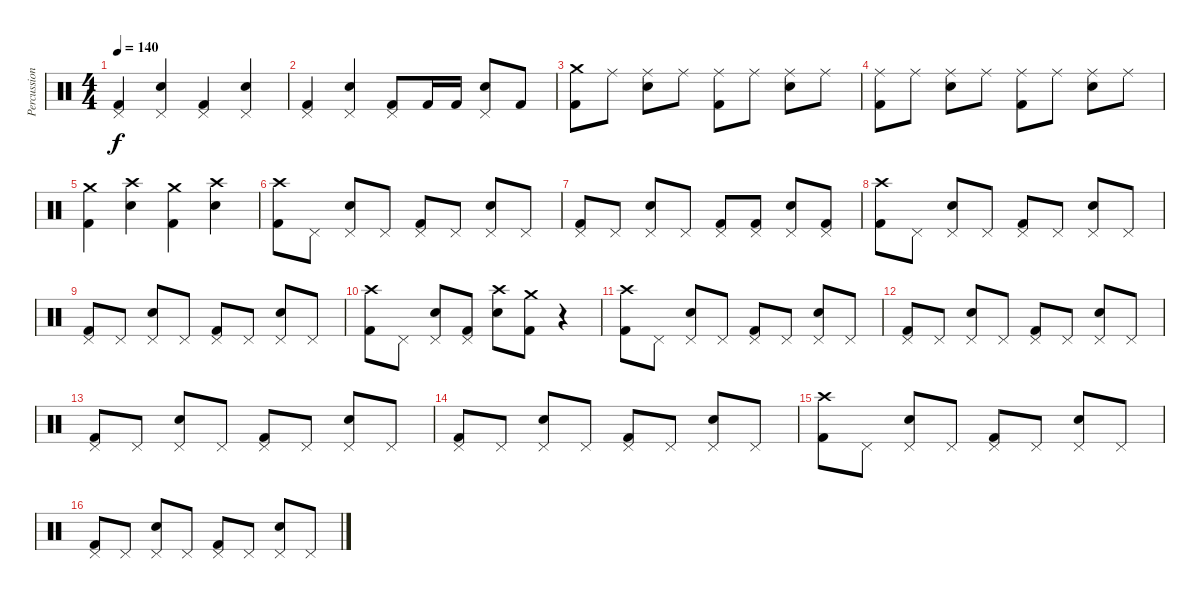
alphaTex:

\track ("Percussion" "Percussion") {instrument percussion}
\staff {score}
\articulation defaults
\ts (4 4)
\tempo 140
\clef neutral
\ks c
("Pedal Hi-Hat (hit)" "Kick (hit) 2").4{dy f} ("Pedal Hi-Hat (hit)" "Snare (hit) 2").4 ("Pedal Hi-Hat (hit)" "Kick (hit) 2").4 ("Pedal Hi-Hat (hit)" "Snare (hit) 2").4 |
("Pedal Hi-Hat (hit)" "Kick (hit) 2").4 ("Pedal Hi-Hat (hit)" "Snare (hit) 2").4 ("Pedal Hi-Hat (hit)" "Kick (hit) 2").8 "Kick (hit) 2".16 "Kick (hit) 2".16 ("Pedal Hi-Hat (hit)" "Snare (hit) 2").8 "Kick (hit) 2".8 |
("Crash medium (hit)" "Kick (hit) 2").8 "Ride (middle)".8 ("Ride (middle)" "Snare (hit) 2").8 "Ride (middle)".8 ("Ride (middle)" "Kick (hit) 2").8 "Ride (middle)".8 ("Ride (middle)" "Snare (hit) 2").8 "Ride (middle)".8 |
("Ride (middle)" "Kick (hit) 2").8 "Ride (middle)".8 ("Ride (middle)" "Snare (hit) 2").8 "Ride (middle)".8 ("Ride (middle)" "Kick (hit) 2").8 "Ride (middle)".8 ("Ride (middle)" "Snare (hit) 2").8 "Ride (middle)".8 |
("Crash medium (hit)" "Kick (hit) 2").4 ("Crash high (hit)" "Snare (hit) 2").4 ("Crash medium (hit)" "Kick (hit) 2").4 ("Crash high (hit)" "Snare (hit) 2").4 |
("Crash high (hit)" "Kick (hit) 2").8 "Pedal Hi-Hat (hit)".8 ("Pedal Hi-Hat (hit)" "Snare (hit) 2").8 "Pedal Hi-Hat (hit)".8 ("Pedal Hi-Hat (hit)" "Kick (hit) 2").8 "Pedal Hi-Hat (hit)".8 ("Pedal Hi-Hat (hit)" "Snare (hit) 2").8 "Pedal Hi-Hat (hit)".8 |
("Pedal Hi-Hat (hit)" "Kick (hit) 2").8 "Pedal Hi-Hat (hit)".8 ("Pedal Hi-Hat (hit)" "Snare (hit) 2").8 "Pedal Hi-Hat (hit)".8 ("Pedal Hi-Hat (hit)" "Kick (hit) 2").8 ("Pedal Hi-Hat (hit)" "Kick (hit) 2").8 ("Pedal Hi-Hat (hit)" "Snare (hit) 2").8 ("Pedal Hi-Hat (hit)" "Kick (hit) 2").8 |
("Crash high (hit)" "Kick (hit) 2").8 "Pedal Hi-Hat (hit)".8 ("Pedal Hi-Hat (hit)" "Snare (hit) 2").8 "Pedal Hi-Hat (hit)".8 ("Pedal Hi-Hat (hit)" "Kick (hit) 2").8 "Pedal Hi-Hat (hit)".8 ("Pedal Hi-Hat (hit)" "Snare (hit) 2").8 "Pedal Hi-Hat (hit)".8 |
("Pedal Hi-Hat (hit)" "Kick (hit) 2").8 "Pedal Hi-Hat (hit)".8 ("Pedal Hi-Hat (hit)" "Snare (hit) 2").8 "Pedal Hi-Hat (hit)".8 ("Pedal Hi-Hat (hit)" "Kick (hit) 2").8 "Pedal Hi-Hat (hit)".8 ("Pedal Hi-Hat (hit)" "Snare (hit) 2").8 "Pedal Hi-Hat (hit)".8 |
("Crash high (hit)" "Kick (hit) 2").8 "Pedal Hi-Hat (hit)".8 ("Pedal Hi-Hat (hit)" "Snare (hit) 2").8 ("Pedal Hi-Hat (hit)" "Kick (hit) 2").8 ("Crash high (hit)" "Snare (hit) 2").8 ("Crash medium (hit)" "Kick (hit) 2").8 r.4 |
("Crash high (hit)" "Kick (hit) 2").8 "Pedal Hi-Hat (hit)".8 ("Pedal Hi-Hat (hit)" "Snare (hit) 2").8 "Pedal Hi-Hat (hit)".8 ("Pedal Hi-Hat (hit)" "Kick (hit) 2").8 "Pedal Hi-Hat (hit)".8 ("Pedal Hi-Hat (hit)" "Snare (hit) 2").8 "Pedal Hi-Hat (hit)".8 |
("Pedal Hi-Hat (hit)" "Kick (hit) 2").8 "Pedal Hi-Hat (hit)".8 ("Pedal Hi-Hat (hit)" "Snare (hit) 2").8 "Pedal Hi-Hat (hit)".8 ("Pedal Hi-Hat (hit)" "Kick (hit) 2").8 "Pedal Hi-Hat (hit)".8 ("Pedal Hi-Hat (hit)" "Snare (hit) 2").8 "Pedal Hi-Hat (hit)".8 |
("Pedal Hi-Hat (hit)" "Kick (hit) 2").8 "Pedal Hi-Hat (hit)".8 ("Pedal Hi-Hat (hit)" "Snare (hit) 2").8 "Pedal Hi-Hat (hit)".8 ("Pedal Hi-Hat (hit)" "Kick (hit) 2").8 "Pedal Hi-Hat (hit)".8 ("Pedal Hi-Hat (hit)" "Snare (hit) 2").8 "Pedal Hi-Hat (hit)".8 |
("Pedal Hi-Hat (hit)" "Kick (hit) 2").8 "Pedal Hi-Hat (hit)".8 ("Pedal Hi-Hat (hit)" "Snare (hit) 2").8 "Pedal Hi-Hat (hit)".8 ("Pedal Hi-Hat (hit)" "Kick (hit) 2").8 "Pedal Hi-Hat (hit)".8 ("Pedal Hi-Hat (hit)" "Snare (hit) 2").8 "Pedal Hi-Hat (hit)".8 |
("Crash high (hit)" "Kick (hit) 2").8 "Pedal Hi-Hat (hit)".8 ("Pedal Hi-Hat (hit)" "Snare (hit) 2").8 "Pedal Hi-Hat (hit)".8 ("Pedal Hi-Hat (hit)" "Kick (hit) 2").8 "Pedal Hi-Hat (hit)".8 ("Pedal Hi-Hat (hit)" "Snare (hit) 2").8 "Pedal Hi-Hat (hit)".8 |
("Pedal Hi-Hat (hit)" "Kick (hit) 2").8 "Pedal Hi-Hat (hit)".8 ("Pedal Hi-Hat (hit)" "Snare (hit) 2").8 "Pedal Hi-Hat (hit)".8 ("Pedal Hi-Hat (hit)" "Kick (hit) 2").8 "Pedal Hi-Hat (hit)".8 ("Pedal Hi-Hat (hit)" "Snare (hit) 2").8 "Pedal Hi-Hat (hit)".8
